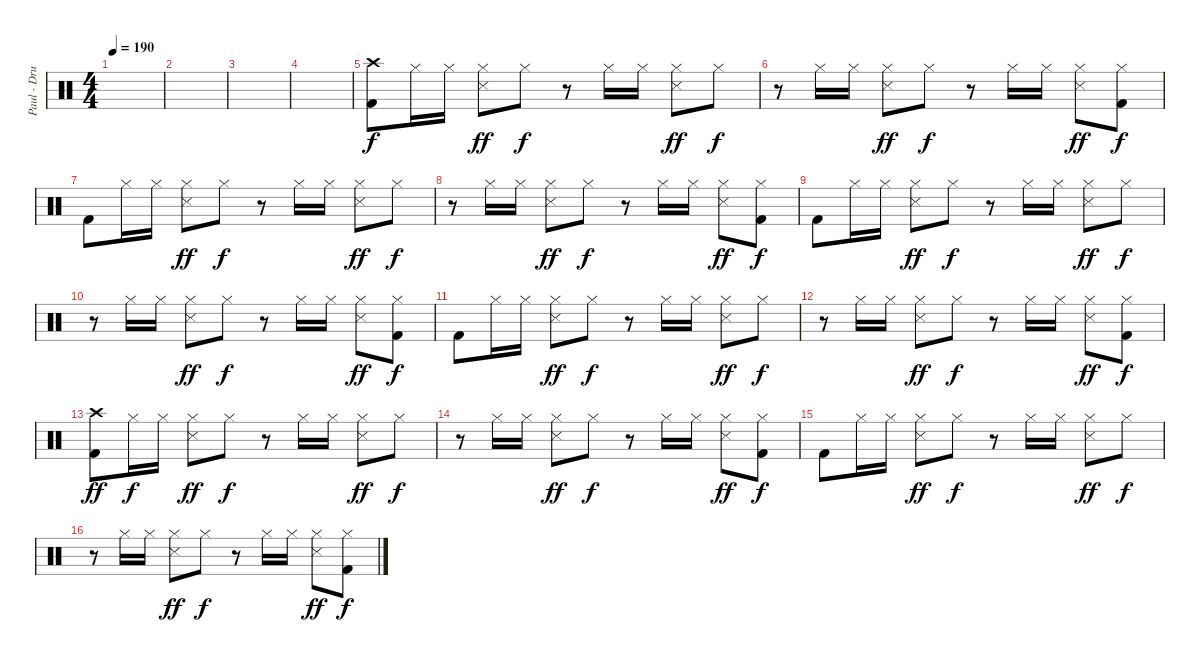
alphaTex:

\track ("Paul - Drums" "Paul - Dru") {instrument percussion}
\staff {score}
\articulation defaults
\ts (4 4)
\tempo 190
\clef neutral
\ks c
|
|
|
|
("Crash high (hit)" "Kick (hit) 2").8 "Hi-Hat (closed)".16{dy f} "Hi-Hat (closed)".16 ("Hi-Hat (closed)" "Snare (side stick) 3").8{dy ff} "Hi-Hat (closed)".8{dy f} r.8 "Hi-Hat (closed)".16 "Hi-Hat (closed)".16 ("Hi-Hat (closed)" "Snare (side stick) 3").8{dy ff} "Hi-Hat (closed)".8{dy f} |
r.8 "Hi-Hat (closed)".16 "Hi-Hat (closed)".16 ("Hi-Hat (closed)" "Snare (side stick) 3").8{dy ff} "Hi-Hat (closed)".8{dy f} r.8 "Hi-Hat (closed)".16 "Hi-Hat (closed)".16 ("Hi-Hat (closed)" "Snare (side stick) 3").8{dy ff} ("Hi-Hat (closed)" "Kick (hit) 2").8{dy f} |
"Kick (hit) 2".8 "Hi-Hat (closed)".16 "Hi-Hat (closed)".16 ("Hi-Hat (closed)" "Snare (side stick) 3").8{dy ff} "Hi-Hat (closed)".8{dy f} r.8 "Hi-Hat (closed)".16 "Hi-Hat (closed)".16 ("Hi-Hat (closed)" "Snare (side stick) 3").8{dy ff} "Hi-Hat (closed)".8{dy f} |
r.8 "Hi-Hat (closed)".16 "Hi-Hat (closed)".16 ("Hi-Hat (closed)" "Snare (side stick) 3").8{dy ff} "Hi-Hat (closed)".8{dy f} r.8 "Hi-Hat (closed)".16 "Hi-Hat (closed)".16 ("Hi-Hat (closed)" "Snare (side stick) 3").8{dy ff} ("Hi-Hat (closed)" "Kick (hit) 2").8{dy f} |
"Kick (hit) 2".8 "Hi-Hat (closed)".16 "Hi-Hat (closed)".16 ("Hi-Hat (closed)" "Snare (side stick) 3").8{dy ff} "Hi-Hat (closed)".8{dy f} r.8 "Hi-Hat (closed)".16 "Hi-Hat (closed)".16 ("Hi-Hat (closed)" "Snare (side stick) 3").8{dy ff} "Hi-Hat (closed)".8{dy f} |
r.8 "Hi-Hat (closed)".16 "Hi-Hat (closed)".16 ("Hi-Hat (closed)" "Snare (side stick) 3").8{dy ff} "Hi-Hat (closed)".8{dy f} r.8 "Hi-Hat (closed)".16 "Hi-Hat (closed)".16 ("Hi-Hat (closed)" "Snare (side stick) 3").8{dy ff} ("Hi-Hat (closed)" "Kick (hit) 2").8{dy f} |
"Kick (hit) 2".8 "Hi-Hat (closed)".16 "Hi-Hat (closed)".16 ("Hi-Hat (closed)" "Snare (side stick) 3").8{dy ff} "Hi-Hat (closed)".8{dy f} r.8 "Hi-Hat (closed)".16 "Hi-Hat (closed)".16 ("Hi-Hat (closed)" "Snare (side stick) 3").8{dy ff} "Hi-Hat (closed)".8{dy f} |
r.8 "Hi-Hat (closed)".16 "Hi-Hat (closed)".16 ("Hi-Hat (closed)" "Snare (side stick) 3").8{dy ff} "Hi-Hat (closed)".8{dy f} r.8 "Hi-Hat (closed)".16 "Hi-Hat (closed)".16 ("Hi-Hat (closed)" "Snare (side stick) 3").8{dy ff} ("Hi-Hat (closed)" "Kick (hit) 2").8{dy f} |
("Crash high (hit)" "Kick (hit) 2").8{dy ff} "Hi-Hat (closed)".16{dy f} "Hi-Hat (closed)".16 ("Hi-Hat (closed)" "Snare (side stick) 3").8{dy ff} "Hi-Hat (closed)".8{dy f} r.8 "Hi-Hat (closed)".16 "Hi-Hat (closed)".16 ("Hi-Hat (closed)" "Snare (side stick) 3").8{dy ff} "Hi-Hat (closed)".8{dy f} |
r.8 "Hi-Hat (closed)".16 "Hi-Hat (closed)".16 ("Hi-Hat (closed)" "Snare (side stick) 3").8{dy ff} "Hi-Hat (closed)".8{dy f} r.8 "Hi-Hat (closed)".16 "Hi-Hat (closed)".16 ("Hi-Hat (closed)" "Snare (side stick) 3").8{dy ff} ("Hi-Hat (closed)" "Kick (hit) 2").8{dy f} |
"Kick (hit) 2".8 "Hi-Hat (closed)".16 "Hi-Hat (closed)".16 ("Hi-Hat (closed)" "Snare (side stick) 3").8{dy ff} "Hi-Hat (closed)".8{dy f} r.8 "Hi-Hat (closed)".16 "Hi-Hat (closed)".16 ("Hi-Hat (closed)" "Snare (side stick) 3").8{dy ff} "Hi-Hat (closed)".8{dy f} |
r.8 "Hi-Hat (closed)".16 "Hi-Hat (closed)".16 ("Hi-Hat (closed)" "Snare (side stick) 3").8{dy ff} "Hi-Hat (closed)".8{dy f} r.8 "Hi-Hat (closed)".16 "Hi-Hat (closed)".16 ("Hi-Hat (closed)" "Snare (side stick) 3").8{dy ff} ("Hi-Hat (closed)" "Kick (hit) 2").8{dy f}
